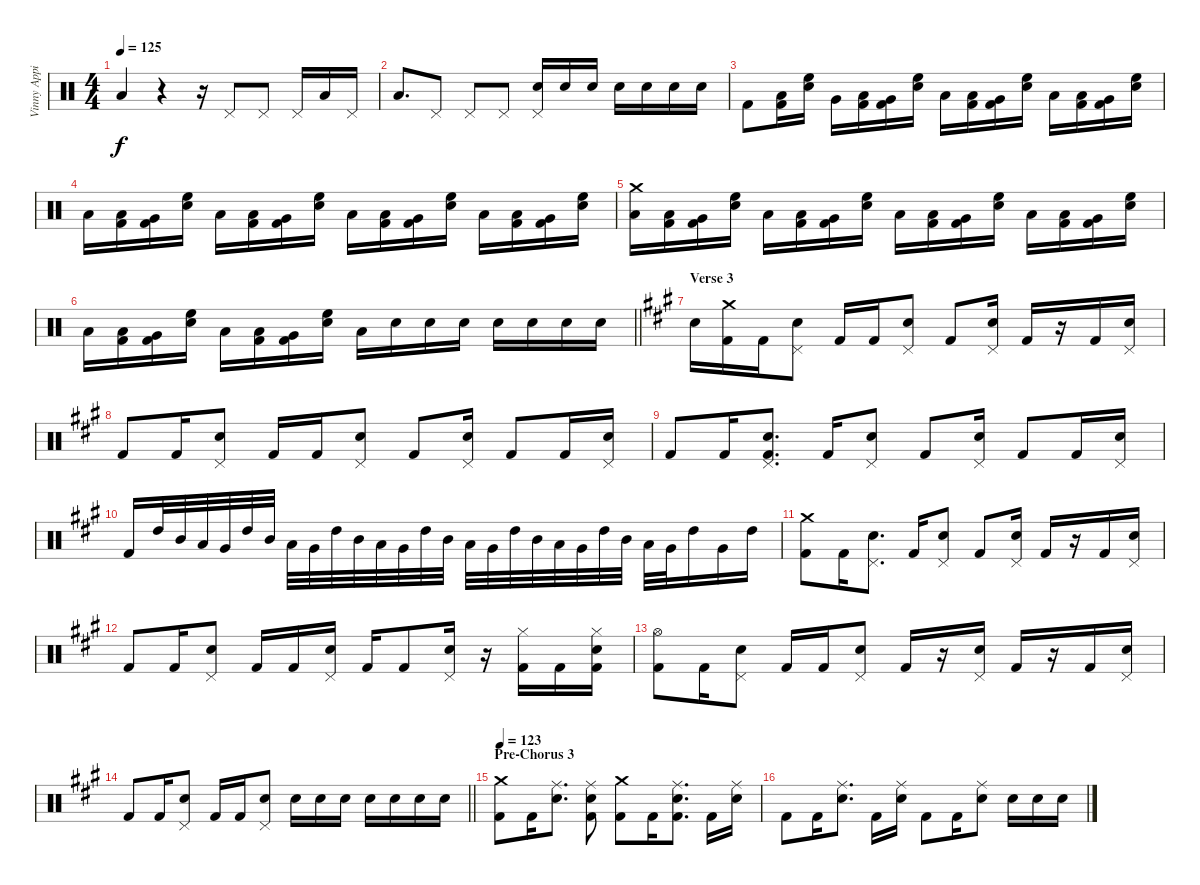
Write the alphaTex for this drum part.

\track ("Vinny Appice" "Vinny Appi") {instrument percussion}
\staff {score}
\articulation defaults
\ts (4 4)
\tempo 125
\clef neutral
\ks aminor "Low Tom (hit)".4{dy f}
r.4 r.16 "Pedal Hi-Hat (hit)".8 "Pedal Hi-Hat (hit)".8 "Pedal Hi-Hat (hit)".16 "Low Tom (hit)".16 "Pedal Hi-Hat (hit)".16 |
"Low Tom (hit)".8{d} "Pedal Hi-Hat (hit)".8 "Pedal Hi-Hat (hit)".8 "Pedal Hi-Hat (hit)".8 ("Pedal Hi-Hat (hit)" "Snare (hit) 2").16 "Snare (hit) 2".16 "Snare (hit) 2".16 "Snare (hit) 2".16 "Snare (hit) 2".16 "Snare (hit) 2".16 "Snare (hit) 2".16 |
"Kick (hit) 2".8 ("Kick (hit) 2" "Low Tom (hit)").16 ("High Floor Tom (hit)" "Snare (hit) 2").16 "Very Low Tom (hit)".16 ("Kick (hit) 2" "Low Tom (hit)").16 ("Kick (hit) 2" "Very Low Tom (hit)").16 ("High Floor Tom (hit)" "Snare (hit) 2").16 "Low Tom (hit)".16 ("Kick (hit) 2" "Low Tom (hit)").16 ("Kick (hit) 2" "Very Low Tom (hit)").16 ("High Floor Tom (hit)" "Snare (hit) 2").16 "Low Tom (hit)".16 ("Kick (hit) 2" "Low Tom (hit)").16 ("Kick (hit) 2" "Very Low Tom (hit)").16 ("High Floor Tom (hit)" "Snare (hit) 2").16 |
"Low Tom (hit)".16 ("Kick (hit) 2" "Low Tom (hit)").16 ("Kick (hit) 2" "Very Low Tom (hit)").16 ("High Floor Tom (hit)" "Snare (hit) 2").16 "Low Tom (hit)".16 ("Low Tom (hit)" "Kick (hit) 2").16 ("Kick (hit) 2" "Very Low Tom (hit)").16 ("High Floor Tom (hit)" "Snare (hit) 2").16 "Low Tom (hit)".16 ("Kick (hit) 2" "Low Tom (hit)").16 ("Kick (hit) 2" "Very Low Tom (hit)").16 ("High Floor Tom (hit)" "Snare (hit) 2").16 "Low Tom (hit)".16 ("Low Tom (hit)" "Kick (hit) 2").16 ("Very Low Tom (hit)" "Kick (hit) 2").16 ("High Floor Tom (hit)" "Snare (hit) 2").16 |
("Low Tom (hit)" "Crash medium (hit)").16 ("Low Tom (hit)" "Kick (hit) 2").16 ("Very Low Tom (hit)" "Kick (hit) 2").16 ("High Floor Tom (hit)" "Snare (hit) 2").16 "Low Tom (hit)".16 ("Low Tom (hit)" "Kick (hit) 2").16 ("Kick (hit) 2" "Very Low Tom (hit)").16 ("Snare (hit) 2" "High Floor Tom (hit)").16 "Low Tom (hit)".16 ("Low Tom (hit)" "Kick (hit) 2").16 ("Kick (hit) 2" "Very Low Tom (hit)").16 ("Snare (hit) 2" "High Floor Tom (hit)").16 "Low Tom (hit)".16 ("Kick (hit) 2" "Low Tom (hit)").16 ("Kick (hit) 2" "Very Low Tom (hit)").16 ("Snare (hit) 2" "High Floor Tom (hit)").16 |
\barLineRight lightlight "Low Tom (hit)".16
("Kick (hit) 2" "Low Tom (hit)").16 ("Kick (hit) 2" "Very Low Tom (hit)").16 ("Snare (hit) 2" "High Floor Tom (hit)").16 "Low Tom (hit)".16 ("Low Tom (hit)" "Kick (hit) 2").16 ("Kick (hit) 2" "Very Low Tom (hit)").16 ("Snare (hit) 2" "High Floor Tom (hit)").16 "Low Tom (hit)".16 "Snare (hit) 2".16 "Snare (hit) 2".16 "Snare (hit) 2".16 "Snare (hit) 2".16 "Snare (hit) 2".16 "Snare (hit) 2".16 "Snare (hit) 2".16 |
\section ("" "Verse 3")
\ks f#minor "Snare (hit) 2".16
("Crash medium (hit)" "Kick (hit) 2").16 "Kick (hit) 2".16 ("Snare (hit) 2" "Pedal Hi-Hat (hit)").8 "Kick (hit) 2".16 "Kick (hit) 2".16 ("Snare (hit) 2" "Pedal Hi-Hat (hit)").8 "Kick (hit) 2".8 ("Snare (hit) 2" "Pedal Hi-Hat (hit)").16 "Kick (hit) 2".16 r.16 "Kick (hit) 2".16 ("Snare (hit) 2" "Pedal Hi-Hat (hit)").16 |
"Kick (hit) 2".8 "Kick (hit) 2".16 ("Snare (hit) 2" "Pedal Hi-Hat (hit)").8 "Kick (hit) 2".16 "Kick (hit) 2".16 ("Snare (hit) 2" "Pedal Hi-Hat (hit)").8 "Kick (hit) 2".8 ("Snare (hit) 2" "Pedal Hi-Hat (hit)").16 "Kick (hit) 2".8 "Kick (hit) 2".16 ("Snare (hit) 2" "Pedal Hi-Hat (hit)").16 |
"Kick (hit) 2".8 "Kick (hit) 2".16 ("Kick (hit) 2" "Snare (hit) 2" "Pedal Hi-Hat (hit)").8{d} "Kick (hit) 2".16 ("Snare (hit) 2" "Pedal Hi-Hat (hit)").8 "Kick (hit) 2".8 ("Snare (hit) 2" "Pedal Hi-Hat (hit)").16 "Kick (hit) 2".8 "Kick (hit) 2".16 ("Snare (hit) 2" "Pedal Hi-Hat (hit)").16 |
"Kick (hit) 2".16 "High Tom (hit)".32 "Mid Tom (hit)".32 "Low Tom (hit)".32 "Very Low Tom (hit)".32 "High Tom (hit)".32 "Mid Tom (hit)".32 "Low Tom (hit)".32 "Very Low Tom (hit)".32 "High Tom (hit)".32 "Mid Tom (hit)".32 "Low Tom (hit)".32 "Very Low Tom (hit)".32 "High Tom (hit)".32 "Mid Tom (hit)".32 "Low Tom (hit)".32 "Very Low Tom (hit)".32 "High Tom (hit)".32 "Mid Tom (hit)".32 "Low Tom (hit)".32 "Very Low Tom (hit)".32 "High Tom (hit)".32 "Mid Tom (hit)".32 "Low Tom (hit)".32 "Very Low Tom (hit)".32 "High Tom (hit)".16 "Very Low Tom (hit)".16 "High Tom (hit)".16 |
("Kick (hit) 2" "Crash medium (hit)").8 "Kick (hit) 2".16 ("Snare (hit) 2" "Pedal Hi-Hat (hit)").8{d} "Kick (hit) 2".16 ("Snare (hit) 2" "Pedal Hi-Hat (hit)").8 "Kick (hit) 2".8 ("Snare (hit) 2" "Pedal Hi-Hat (hit)").16 "Kick (hit) 2".16 r.16 "Kick (hit) 2".16 ("Pedal Hi-Hat (hit)" "Snare (hit) 2").16 |
"Kick (hit) 2".8 "Kick (hit) 2".16 ("Snare (hit) 2" "Pedal Hi-Hat (hit)").8 "Kick (hit) 2".16 "Kick (hit) 2".16 ("Snare (hit) 2" "Pedal Hi-Hat (hit)").16 "Kick (hit) 2".16 "Kick (hit) 2".8 ("Pedal Hi-Hat (hit)" "Snare (hit) 2").16 r.16 ("Kick (hit) 2" "Hi-Hat (closed)").16 "Kick (hit) 2".16 ("Snare (hit) 2" "Hi-Hat (closed)" "Kick (hit) 2").16 |
("Hi-Hat (open)" "Kick (hit) 2").8 "Kick (hit) 2".16 ("Pedal Hi-Hat (hit)" "Snare (hit) 2").8 "Kick (hit) 2".16 "Kick (hit) 2".16 ("Snare (hit) 2" "Pedal Hi-Hat (hit)").8 "Kick (hit) 2".16 r.16 ("Pedal Hi-Hat (hit)" "Snare (hit) 2").16 "Kick (hit) 2".16 r.16 "Kick (hit) 2".16 ("Snare (hit) 2" "Pedal Hi-Hat (hit)").16 |
\barLineRight lightlight "Kick (hit) 2".8 "Kick (hit) 2".16
("Pedal Hi-Hat (hit)" "Snare (hit) 2").8 "Kick (hit) 2".16 "Kick (hit) 2".16 ("Pedal Hi-Hat (hit)" "Snare (hit) 2").8 "Snare (hit) 2".16 "Snare (hit) 2".16 "Snare (hit) 2".16 "Snare (hit) 2".16 "Snare (hit) 2".16 "Snare (hit) 2".16 "Snare (hit) 2".16 |
\section ("" "Pre-Chorus 3")
\tempo 123
("Crash medium (hit)" "Kick (hit) 2").8 "Kick (hit) 2".16 ("Ride (middle)" "Snare (hit) 2").8{d} ("Ride (middle)" "Snare (hit) 2" "Kick (hit) 2").8 ("Kick (hit) 2" "Crash medium (hit)").8 "Kick (hit) 2".16 ("Kick (hit) 2" "Snare (hit) 2" "Ride (middle)").8{d} "Kick (hit) 2".16 ("Snare (hit) 2" "Ride (middle)").16 |
"Kick (hit) 2".8 "Kick (hit) 2".16 ("Ride (middle)" "Snare (hit) 2").8{d} "Kick (hit) 2".16 ("Snare (hit) 2" "Ride (middle)").16 "Kick (hit) 2".8 "Kick (hit) 2".16 ("Snare (hit) 2" "Ride (middle)").8 "Snare (hit) 2".16 "Snare (hit) 2".16 "Snare (hit) 2".16
